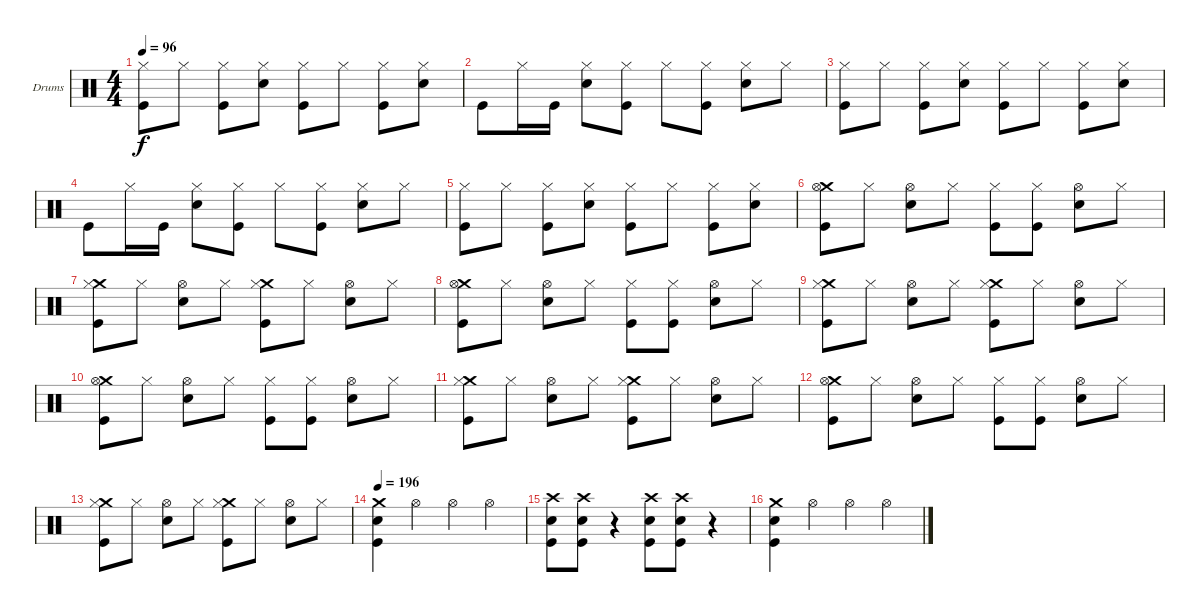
\defaultSystemsLayout 4
\bracketExtendMode groupsimilarinstruments
\firstSystemTrackNameOrientation horizontal
\otherSystemsTrackNameOrientation horizontal
\track ("Lars Ulrich (Drum)" "Drums") {instrument percussion}
\staff {score}
\articulation defaults
\ts (4 4)
\tempo 96
\clef neutral
\scale
0.333333
\ks c
("Hi-Hat (closed)" "Kick (hit)").8{dy f} "Hi-Hat (closed)".8 ("Hi-Hat (closed)" "Kick (hit)").8 ("Hi-Hat (closed)" "Snare (hit) 2").8 ("Hi-Hat (closed)" "Kick (hit)").8 "Hi-Hat (closed)".8 ("Hi-Hat (closed)" "Kick (hit)").8 ("Hi-Hat (closed)" "Snare (hit) 2").8 |
\scale
0.333333 "Kick (hit)".8 "Hi-Hat (closed)".16 "Kick (hit)".16 ("Hi-Hat (closed)" "Snare (hit) 2").8 ("Hi-Hat (closed)" "Kick (hit)").8 "Hi-Hat (closed)".8 ("Hi-Hat (closed)" "Kick (hit)").8 ("Hi-Hat (closed)" "Snare (hit) 2").8 "Hi-Hat (closed)".8 |
\scale
0.333333 ("Hi-Hat (closed)" "Kick (hit)").8 "Hi-Hat (closed)".8 ("Hi-Hat (closed)" "Kick (hit)").8 ("Hi-Hat (closed)" "Snare (hit) 2").8 ("Hi-Hat (closed)" "Kick (hit)").8 "Hi-Hat (closed)".8 ("Hi-Hat (closed)" "Kick (hit)").8 ("Hi-Hat (closed)" "Snare (hit) 2").8 |
\scale
0.333333 "Kick (hit)".8 "Hi-Hat (closed)".16 "Kick (hit)".16 ("Hi-Hat (closed)" "Snare (hit) 2").8 ("Hi-Hat (closed)" "Kick (hit)").8 "Hi-Hat (closed)".8 ("Hi-Hat (closed)" "Kick (hit)").8 ("Hi-Hat (closed)" "Snare (hit) 2").8 "Hi-Hat (closed)".8 |
\scale
0.333333 ("Hi-Hat (closed)" "Kick (hit)").8 "Hi-Hat (closed)".8 ("Hi-Hat (closed)" "Kick (hit)").8 ("Hi-Hat (closed)" "Snare (hit) 2").8 ("Hi-Hat (closed)" "Kick (hit)").8 "Hi-Hat (closed)".8 ("Hi-Hat (closed)" "Kick (hit)").8 ("Hi-Hat (closed)" "Snare (hit) 2").8 |
\scale
0.333333 ("Crash medium (hit)" "Hi-Hat (open)" "Kick (hit)").8 "Hi-Hat (closed)".8 ("Hi-Hat (open)" "Snare (hit) 2").8 "Hi-Hat (closed)".8 ("Hi-Hat (closed)" "Kick (hit)").8 ("Hi-Hat (closed)" "Kick (hit)").8 ("Hi-Hat (open)" "Snare (hit) 2").8 "Hi-Hat (closed)".8 |
\scale
0.333333 ("Crash medium (hit)" "Hi-Hat (closed)" "Kick (hit)").8 "Hi-Hat (closed)".8 ("Hi-Hat (open)" "Snare (hit) 2").8 "Hi-Hat (closed)".8 ("Crash medium (hit)" "Hi-Hat (closed)" "Kick (hit)").8 "Hi-Hat (closed)".8 ("Hi-Hat (open)" "Snare (hit) 2").8 "Hi-Hat (closed)".8 |
\scale
0.333333 ("Crash medium (hit)" "Hi-Hat (open)" "Kick (hit)").8 "Hi-Hat (closed)".8 ("Hi-Hat (open)" "Snare (hit) 2").8 "Hi-Hat (closed)".8 ("Hi-Hat (closed)" "Kick (hit)").8 ("Hi-Hat (closed)" "Kick (hit)").8 ("Hi-Hat (open)" "Snare (hit) 2").8 "Hi-Hat (closed)".8 |
\scale
0.333333 ("Crash medium (hit)" "Hi-Hat (closed)" "Kick (hit)").8 "Hi-Hat (closed)".8 ("Hi-Hat (open)" "Snare (hit) 2").8 "Hi-Hat (closed)".8 ("Crash medium (hit)" "Hi-Hat (closed)" "Kick (hit)").8 "Hi-Hat (closed)".8 ("Hi-Hat (open)" "Snare (hit) 2").8 "Hi-Hat (closed)".8 |
\scale
0.333333 ("Crash medium (hit)" "Hi-Hat (open)" "Kick (hit)").8 "Hi-Hat (closed)".8 ("Hi-Hat (open)" "Snare (hit) 2").8 "Hi-Hat (closed)".8 ("Hi-Hat (closed)" "Kick (hit)").8 ("Hi-Hat (closed)" "Kick (hit)").8 ("Hi-Hat (open)" "Snare (hit) 2").8 "Hi-Hat (closed)".8 |
\scale
0.333333 ("Crash medium (hit)" "Hi-Hat (closed)" "Kick (hit)").8 "Hi-Hat (closed)".8 ("Hi-Hat (open)" "Snare (hit) 2").8 "Hi-Hat (closed)".8 ("Crash medium (hit)" "Hi-Hat (closed)" "Kick (hit)").8 "Hi-Hat (closed)".8 ("Hi-Hat (open)" "Snare (hit) 2").8 "Hi-Hat (closed)".8 |
\scale
0.333333 ("Crash medium (hit)" "Hi-Hat (open)" "Kick (hit)").8 "Hi-Hat (closed)".8 ("Hi-Hat (open)" "Snare (hit) 2").8 "Hi-Hat (closed)".8 ("Hi-Hat (closed)" "Kick (hit)").8 ("Hi-Hat (closed)" "Kick (hit)").8 ("Hi-Hat (open)" "Snare (hit) 2").8 "Hi-Hat (closed)".8 |
\scale
0.333333 ("Crash medium (hit)" "Hi-Hat (closed)" "Kick (hit)").8 "Hi-Hat (closed)".8 ("Hi-Hat (open)" "Snare (hit) 2").8 "Hi-Hat (closed)".8 ("Crash medium (hit)" "Hi-Hat (closed)" "Kick (hit)").8 "Hi-Hat (closed)".8 ("Hi-Hat (open)" "Snare (hit) 2").8 "Hi-Hat (closed)".8 |
\tempo 196
\scale
0.333333 ("Crash medium (hit)" "Snare (hit) 2" "Kick (hit)").4 "Hi-Hat (open)".4 "Hi-Hat (open)".4 "Hi-Hat (open)".4 |
\scale
0.333333 ("Crash high (hit)" "Snare (hit) 2" "Kick (hit)").8 ("Crash high (hit)" "Snare (hit) 2" "Kick (hit)").8 r.4 ("Crash high (hit)" "Snare (hit) 2" "Kick (hit)").8 ("Crash high (hit)" "Snare (hit) 2" "Kick (hit)").8 r.4 |
\scale
0.333333 ("Crash medium (hit)" "Snare (hit) 2" "Kick (hit)").4 "Hi-Hat (open)".4 "Hi-Hat (open)".4 "Hi-Hat (open)".4
